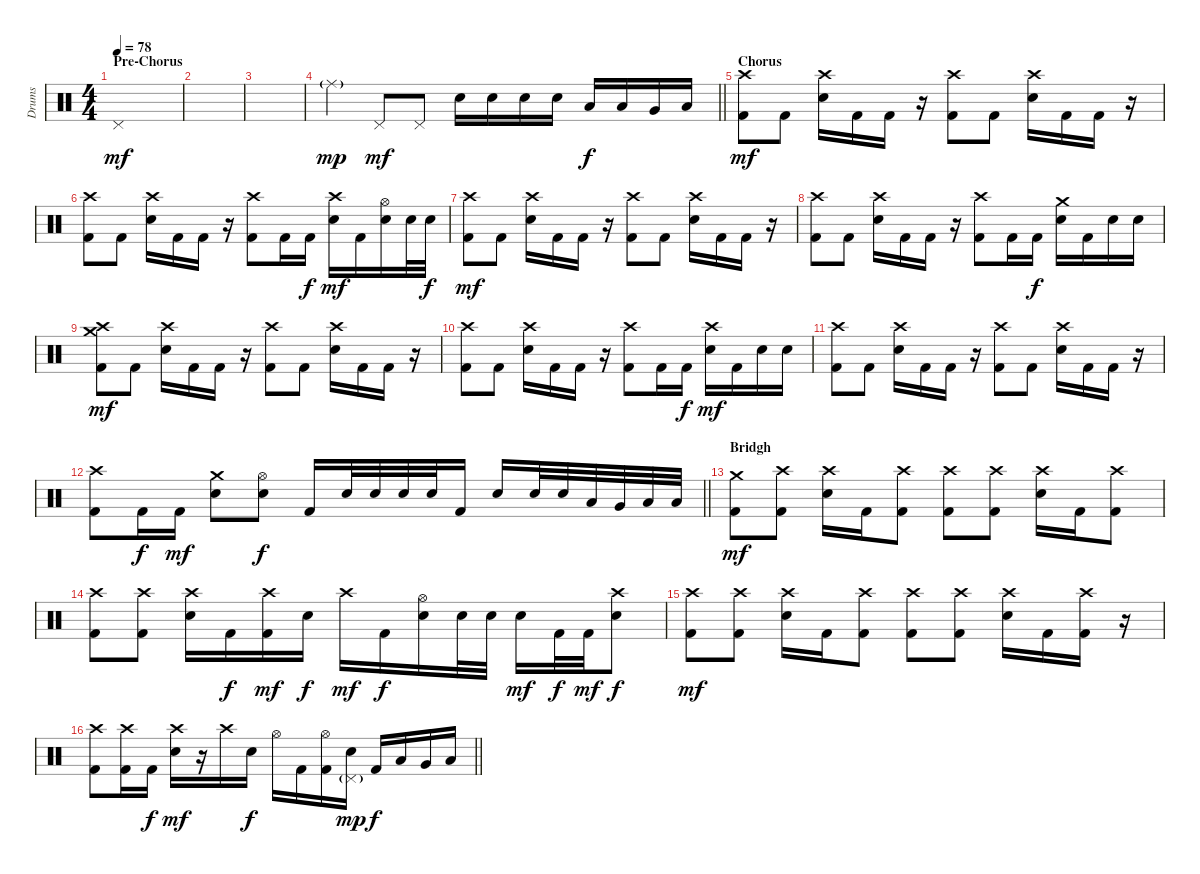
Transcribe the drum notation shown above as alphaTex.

\track ("Drums" "Drums") {instrument percussion}
\staff {score}
\articulation defaults
\ts (4 4)
\section ("" "Pre-Chorus")
\tempo 78
\clef neutral
\ks c "Pedal Hi-Hat (hit)".1{dy mf}
|
|
|
\barLineRight lightlight "Ride (middle)"{g}.4{dy mp} "Pedal Hi-Hat (hit)".8{dy mf} "Pedal Hi-Hat (hit)".8 "Electric Snare (hit)".16 "Electric Snare (hit)".16 "Electric Snare (hit)".16 "Electric Snare (hit)".16 "Low Tom (hit)".16{dy f} "Low Tom (hit)".16 "Very Low Tom (hit)".16 "Low Floor Tom (hit)".16
|
\section ("" "Chorus")
("Crash high (hit)" "Kick (hit) 2").8{dy mf} "Kick (hit) 2".8 ("Crash high (hit)" "Electric Snare (hit)").16 "Kick (hit) 2".16 "Kick (hit) 2".16 r.16 ("Crash high (hit)" "Kick (hit) 2").8 "Kick (hit) 2".8 ("Crash high (hit)" "Electric Snare (hit)").16 "Kick (hit) 2".16 "Kick (hit) 2".16 r.16 |
("Crash high (hit)" "Kick (hit) 2").8 "Kick (hit) 2".8 ("Crash high (hit)" "Electric Snare (hit)").16 "Kick (hit) 2".16 "Kick (hit) 2".16 r.16 ("Crash high (hit)" "Kick (hit) 2").8 "Kick (hit) 2".16 "Kick (hit) 2".16{dy f} ("Crash high (hit)" "Electric Snare (hit)").16{dy mf} "Kick (hit) 2".16 ("Hi-Hat (open)" "Electric Snare (hit)").16 "Electric Snare (hit)".32 "Electric Snare (hit)".32{dy f} |
("Crash high (hit)" "Kick (hit) 2").8{dy mf} "Kick (hit) 2".8 ("Crash high (hit)" "Electric Snare (hit)").16 "Kick (hit) 2".16 "Kick (hit) 2".16 r.16 ("Crash high (hit)" "Kick (hit) 2").8 "Kick (hit) 2".8 ("Crash high (hit)" "Electric Snare (hit)").16 "Kick (hit) 2".16 "Kick (hit) 2".16 r.16 |
("Crash high (hit)" "Kick (hit) 2").8 "Kick (hit) 2".8 ("Crash high (hit)" "Electric Snare (hit)").16 "Kick (hit) 2".16 "Kick (hit) 2".16 r.16 ("Crash high (hit)" "Kick (hit) 2").8 "Kick (hit) 2".16 "Kick (hit) 2".16{dy f} ("Crash medium (hit)" "Electric Snare (hit)").16 "Kick (hit) 2".16 "Electric Snare (hit)".16 "Electric Snare (hit)".16 |
("Crash high (hit)" "Crash medium (hit)" "Kick (hit) 2").8{dy mf} "Kick (hit) 2".8 ("Crash high (hit)" "Electric Snare (hit)").16 "Kick (hit) 2".16 "Kick (hit) 2".16 r.16 ("Crash high (hit)" "Kick (hit) 2").8 "Kick (hit) 2".8 ("Crash high (hit)" "Electric Snare (hit)").16 "Kick (hit) 2".16 "Kick (hit) 2".16 r.16 |
("Crash high (hit)" "Kick (hit) 2").8 "Kick (hit) 2".8 ("Crash high (hit)" "Electric Snare (hit)").16 "Kick (hit) 2".16 "Kick (hit) 2".16 r.16 ("Crash high (hit)" "Kick (hit) 2").8 "Kick (hit) 2".16 "Kick (hit) 2".16{dy f} ("Crash high (hit)" "Electric Snare (hit)").16{dy mf} "Kick (hit) 2".16 "Electric Snare (hit)".16 "Electric Snare (hit)".16 |
("Crash high (hit)" "Kick (hit) 2").8 "Kick (hit) 2".8 ("Crash high (hit)" "Electric Snare (hit)").16 "Kick (hit) 2".16 "Kick (hit) 2".16 r.16 ("Crash high (hit)" "Kick (hit) 2").8 "Kick (hit) 2".8 ("Crash high (hit)" "Electric Snare (hit)").16 "Kick (hit) 2".16 "Kick (hit) 2".16 r.16 |
\barLineRight lightlight
("Crash high (hit)" "Kick (hit) 2").8 "Kick (hit) 2".16{dy f} "Kick (hit) 2".16{dy mf} ("Crash medium (hit)" "Electric Snare (hit)").8 ("Hi-Hat (open)" "Electric Snare (hit)").8{dy f} "Kick (hit) 2".16 "Electric Snare (hit)".32 "Electric Snare (hit)".32 "Electric Snare (hit)".32 "Electric Snare (hit)".32 "Kick (hit) 2".16 "Electric Snare (hit)".16 "Electric Snare (hit)".32 "Electric Snare (hit)".32 "Low Tom (hit)".32 "Very Low Tom (hit)".32 "Low Floor Tom (hit)".32 "Low Floor Tom (hit)".32 |
\section ("" "Bridgh")
("Crash medium (hit)" "Kick (hit) 2").8{dy mf} ("Crash high (hit)" "Kick (hit) 2").8 ("Crash high (hit)" "Electric Snare (hit)").16 "Kick (hit) 2".16 ("Crash high (hit)" "Kick (hit) 2").8 ("Crash high (hit)" "Kick (hit) 2").8 ("Crash high (hit)" "Kick (hit) 2").8 ("Crash high (hit)" "Electric Snare (hit)").16 "Kick (hit) 2".16 ("Crash high (hit)" "Kick (hit) 2").8 |
("Crash high (hit)" "Kick (hit) 2").8 ("Crash high (hit)" "Kick (hit) 2").8 ("Crash high (hit)" "Electric Snare (hit)").16 "Kick (hit) 2".16{dy f} ("Crash high (hit)" "Kick (hit) 2").16{dy mf} "Electric Snare (hit)".16{dy f} "Crash high (hit)".16{dy mf} "Kick (hit) 2".16{dy f} ("Hi-Hat (open)" "Electric Snare (hit)").16 "Electric Snare (hit)".32 "Electric Snare (hit)".32 "Electric Snare (hit)".16{dy mf} "Kick (hit) 2".32{dy f} "Kick (hit) 2".32{dy mf} ("Crash high (hit)" "Electric Snare (hit)").8{dy f} |
("Crash high (hit)" "Kick (hit) 2").8{dy mf} ("Crash high (hit)" "Kick (hit) 2").8 ("Crash high (hit)" "Electric Snare (hit)").16 "Kick (hit) 2".16 ("Crash high (hit)" "Kick (hit) 2").8 ("Crash high (hit)" "Kick (hit) 2").8 ("Crash high (hit)" "Kick (hit) 2").8 ("Crash high (hit)" "Electric Snare (hit)").16 "Kick (hit) 2".16 ("Crash high (hit)" "Kick (hit) 2").16 r.16 |
\barLineRight lightlight
("Crash high (hit)" "Kick (hit) 2").8 ("Crash high (hit)" "Kick (hit) 2").16 "Kick (hit) 2".16{dy f} ("Crash high (hit)" "Electric Snare (hit)").16{dy mf} r.16 "Crash high (hit)".16 "Electric Snare (hit)".16{dy f} "Hi-Hat (open)".16 "Kick (hit) 2".16 ("Hi-Hat (open)" "Kick (hit) 2").16 ("Pedal Hi-Hat (hit)"{g} "Electric Snare (hit)").16{dy mp} "Kick (hit) 2".16{dy f} "Low Tom (hit)".16 "Very Low Tom (hit)".16 "Low Floor Tom (hit)".16
